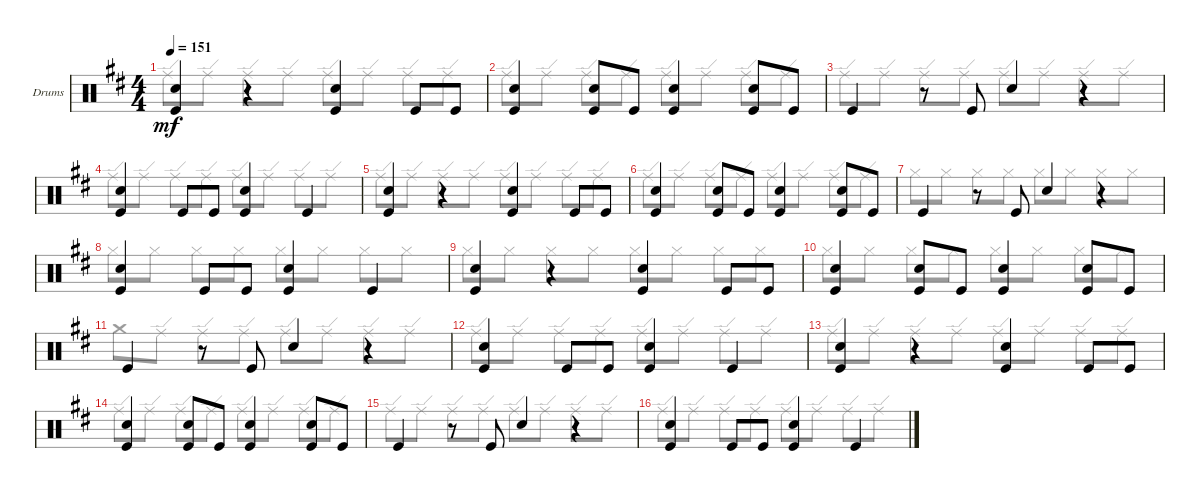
\bracketExtendMode groupsimilarinstruments
\firstSystemTrackNameOrientation horizontal
\otherSystemsTrackNameOrientation horizontal
\track ("Drumkit" "Drums") {instrument percussion}
\staff {score}
\articulation defaults
\voice
\ts (4 4)
\tempo 151
\clef neutral
\ks d
("Kick (hit)" "Snare (hit) 2").4{dy mf} r.4 ("Kick (hit)" "Snare (hit) 2").4 "Kick (hit)".8 "Kick (hit)".8 |
("Kick (hit)" "Snare (hit) 2").4 ("Kick (hit)" "Snare (hit) 2").8 "Kick (hit)".8 ("Kick (hit)" "Snare (hit) 2").4 ("Kick (hit)" "Snare (hit) 2").8 "Kick (hit)".8 |
"Kick (hit)".4 r.8 "Kick (hit)".8 "Snare (hit) 2".4 r.4 |
("Kick (hit)" "Snare (hit) 2").4 "Kick (hit)".8 "Kick (hit)".8 ("Kick (hit)" "Snare (hit) 2").4 "Kick (hit)".4 |
("Kick (hit)" "Snare (hit) 2").4 r.4 ("Kick (hit)" "Snare (hit) 2").4 "Kick (hit)".8 "Kick (hit)".8 |
("Kick (hit)" "Snare (hit) 2").4 ("Kick (hit)" "Snare (hit) 2").8 "Kick (hit)".8 ("Kick (hit)" "Snare (hit) 2").4 ("Kick (hit)" "Snare (hit) 2").8 "Kick (hit)".8 |
"Kick (hit)".4 r.8 "Kick (hit)".8 "Snare (hit) 2".4 r.4 |
("Kick (hit)" "Snare (hit) 2").4 "Kick (hit)".8 "Kick (hit)".8 ("Kick (hit)" "Snare (hit) 2").4 "Kick (hit)".4 |
("Kick (hit)" "Snare (hit) 2").4 r.4 ("Kick (hit)" "Snare (hit) 2").4 "Kick (hit)".8 "Kick (hit)".8 |
("Kick (hit)" "Snare (hit) 2").4 ("Kick (hit)" "Snare (hit) 2").8 "Kick (hit)".8 ("Kick (hit)" "Snare (hit) 2").4 ("Kick (hit)" "Snare (hit) 2").8 "Kick (hit)".8 |
"Kick (hit)".4 r.8 "Kick (hit)".8 "Snare (hit) 2".4 r.4 |
("Kick (hit)" "Snare (hit) 2").4 "Kick (hit)".8 "Kick (hit)".8 ("Kick (hit)" "Snare (hit) 2").4 "Kick (hit)".4 |
("Kick (hit)" "Snare (hit) 2").4 r.4 ("Kick (hit)" "Snare (hit) 2").4 "Kick (hit)".8 "Kick (hit)".8 |
("Kick (hit)" "Snare (hit) 2").4 ("Kick (hit)" "Snare (hit) 2").8 "Kick (hit)".8 ("Kick (hit)" "Snare (hit) 2").4 ("Kick (hit)" "Snare (hit) 2").8 "Kick (hit)".8 |
"Kick (hit)".4 r.8 "Kick (hit)".8 "Snare (hit) 2".4 r.4 |
("Kick (hit)" "Snare (hit) 2").4 "Kick (hit)".8 "Kick (hit)".8 ("Kick (hit)" "Snare (hit) 2").4 "Kick (hit)".4
\voice
\clef neutral
\ottava regular
\simile none
\ks d "Ride (edge)".8{dy mf} "Ride (edge)".8 "Ride (edge)".8 "Ride (edge)".8 "Ride (edge)".8 "Ride (edge)".8 "Ride (edge)".8 "Ride (edge)".8
|
"Ride (edge)".8 "Ride (edge)".8 "Ride (edge)".8 "Ride (edge)".8 "Ride (edge)".8 "Ride (edge)".8 "Ride (edge)".8 "Ride (edge)".8 |
"Ride (edge)".8 "Ride (edge)".8 "Ride (edge)".8 "Ride (edge)".8 "Ride (edge)".8 "Ride (edge)".8 "Ride (edge)".8 "Ride (edge)".8 |
"Ride (edge)".8 "Ride (edge)".8 "Ride (edge)".8 "Ride (edge)".8 "Ride (edge)".8 "Ride (edge)".8 "Ride (edge)".8 "Ride (edge)".8 |
"Ride (edge)".8 "Ride (edge)".8 "Ride (edge)".8 "Ride (edge)".8 "Ride (edge)".8 "Ride (edge)".8 "Ride (edge)".8 "Ride (edge)".8 |
"Ride (edge)".8 "Ride (edge)".8 "Ride (edge)".8 "Ride (edge)".8 "Ride (edge)".8 "Ride (edge)".8 "Ride (edge)".8 "Ride (edge)".8 |
"Hi-Hat (closed)".8 "Hi-Hat (closed)".8 "Hi-Hat (closed)".8 "Hi-Hat (closed)".8 "Hi-Hat (closed)".8 "Hi-Hat (closed)".8 "Hi-Hat (closed)".8 "Hi-Hat (closed)".8 |
"Hi-Hat (closed)".8 "Hi-Hat (closed)".8 "Hi-Hat (closed)".8 "Hi-Hat (closed)".8 "Hi-Hat (closed)".8 "Hi-Hat (closed)".8 "Hi-Hat (closed)".8 "Hi-Hat (closed)".8 |
"Hi-Hat (closed)".8 "Hi-Hat (closed)".8 "Hi-Hat (closed)".8 "Hi-Hat (closed)".8 "Hi-Hat (closed)".8 "Hi-Hat (closed)".8 "Hi-Hat (closed)".8 "Hi-Hat (closed)".8 |
"Hi-Hat (closed)".8 "Hi-Hat (closed)".8 "Hi-Hat (closed)".8 "Hi-Hat (closed)".8 "Hi-Hat (closed)".8 "Hi-Hat (closed)".8 "Hi-Hat (closed)".8 "Hi-Hat (closed)".8 |
"Crash medium (hit)".8 "Ride (edge)".8 "Ride (edge)".8 "Ride (edge)".8 "Ride (edge)".8 "Ride (edge)".8 "Ride (edge)".8 "Ride (edge)".8 |
"Ride (edge)".8 "Ride (edge)".8 "Ride (edge)".8 "Ride (edge)".8 "Ride (edge)".8 "Ride (edge)".8 "Ride (edge)".8 "Ride (edge)".8 |
"Ride (edge)".8 "Ride (edge)".8 "Ride (edge)".8 "Ride (edge)".8 "Ride (edge)".8 "Ride (edge)".8 "Ride (edge)".8 "Ride (edge)".8 |
"Ride (edge)".8 "Ride (edge)".8 "Ride (edge)".8 "Ride (edge)".8 "Ride (edge)".8 "Ride (edge)".8 "Ride (edge)".8 "Ride (edge)".8 |
"Ride (edge)".8 "Ride (edge)".8 "Ride (edge)".8 "Ride (edge)".8 "Ride (edge)".8 "Ride (edge)".8 "Ride (edge)".8 "Ride (edge)".8 |
"Ride (edge)".8 "Ride (edge)".8 "Ride (edge)".8 "Ride (edge)".8 "Ride (edge)".8 "Ride (edge)".8 "Ride (edge)".8 "Ride (edge)".8
